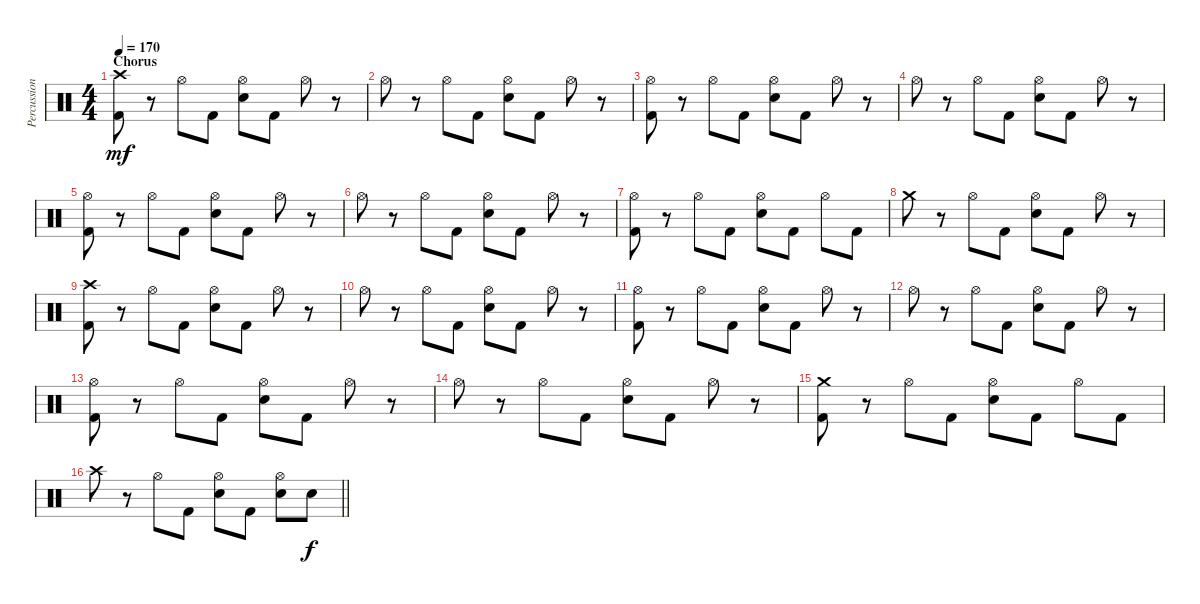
\track ("Percussion" "Percussion") {instrument percussion}
\staff {score}
\articulation defaults
\ts (4 4)
\section ("" "Chorus")
\tempo 170
\clef neutral
\ks c
("Crash high (hit)" "Kick (hit) 2").8{dy mf} r.8 "Hi-Hat (open)".8 "Kick (hit) 2".8 ("Hi-Hat (open)" "Electric Snare (hit)").8 "Kick (hit) 2".8 "Hi-Hat (open)".8 r.8 |
"Hi-Hat (open)".8 r.8 "Hi-Hat (open)".8 "Kick (hit) 2".8 ("Hi-Hat (open)" "Electric Snare (hit)").8 "Kick (hit) 2".8 "Hi-Hat (open)".8 r.8 |
("Hi-Hat (open)" "Kick (hit) 2").8 r.8 "Hi-Hat (open)".8 "Kick (hit) 2".8 ("Hi-Hat (open)" "Electric Snare (hit)").8 "Kick (hit) 2".8 "Hi-Hat (open)".8 r.8 |
"Hi-Hat (open)".8 r.8 "Hi-Hat (open)".8 "Kick (hit) 2".8 ("Hi-Hat (open)" "Electric Snare (hit)").8 "Kick (hit) 2".8 "Hi-Hat (open)".8 r.8 |
("Hi-Hat (open)" "Kick (hit) 2").8 r.8 "Hi-Hat (open)".8 "Kick (hit) 2".8 ("Hi-Hat (open)" "Electric Snare (hit)").8 "Kick (hit) 2".8 "Hi-Hat (open)".8 r.8 |
"Hi-Hat (open)".8 r.8 "Hi-Hat (open)".8 "Kick (hit) 2".8 ("Hi-Hat (open)" "Electric Snare (hit)").8 "Kick (hit) 2".8 "Hi-Hat (open)".8 r.8 |
("Hi-Hat (open)" "Kick (hit) 2").8 r.8 "Hi-Hat (open)".8 "Kick (hit) 2".8 ("Hi-Hat (open)" "Electric Snare (hit)").8 "Kick (hit) 2".8 "Hi-Hat (open)".8 "Kick (hit) 2".8 |
"Crash medium (hit)".8 r.8 "Hi-Hat (open)".8 "Kick (hit) 2".8 ("Hi-Hat (open)" "Electric Snare (hit)").8 "Kick (hit) 2".8 "Hi-Hat (open)".8 r.8 |
("Crash high (hit)" "Kick (hit) 2").8 r.8 "Hi-Hat (open)".8 "Kick (hit) 2".8 ("Hi-Hat (open)" "Electric Snare (hit)").8 "Kick (hit) 2".8 "Hi-Hat (open)".8 r.8 |
"Hi-Hat (open)".8 r.8 "Hi-Hat (open)".8 "Kick (hit) 2".8 ("Hi-Hat (open)" "Electric Snare (hit)").8 "Kick (hit) 2".8 "Hi-Hat (open)".8 r.8 |
("Hi-Hat (open)" "Kick (hit) 2").8 r.8 "Hi-Hat (open)".8 "Kick (hit) 2".8 ("Hi-Hat (open)" "Electric Snare (hit)").8 "Kick (hit) 2".8 "Hi-Hat (open)".8 r.8 |
"Hi-Hat (open)".8 r.8 "Hi-Hat (open)".8 "Kick (hit) 2".8 ("Hi-Hat (open)" "Electric Snare (hit)").8 "Kick (hit) 2".8 "Hi-Hat (open)".8 r.8 |
("Hi-Hat (open)" "Kick (hit) 2").8 r.8 "Hi-Hat (open)".8 "Kick (hit) 2".8 ("Hi-Hat (open)" "Electric Snare (hit)").8 "Kick (hit) 2".8 "Hi-Hat (open)".8 r.8 |
"Hi-Hat (open)".8 r.8 "Hi-Hat (open)".8 "Kick (hit) 2".8 ("Hi-Hat (open)" "Electric Snare (hit)").8 "Kick (hit) 2".8 "Hi-Hat (open)".8 r.8 |
("Crash medium (hit)" "Kick (hit) 2").8 r.8 "Hi-Hat (open)".8 "Kick (hit) 2".8 ("Hi-Hat (open)" "Electric Snare (hit)").8 "Kick (hit) 2".8 "Hi-Hat (open)".8 "Kick (hit) 2".8 |
\barLineRight lightlight "Crash high (hit)".8
r.8 "Hi-Hat (open)".8 "Kick (hit) 2".8 ("Hi-Hat (open)" "Electric Snare (hit)").8 "Kick (hit) 2".8 ("Hi-Hat (open)" "Electric Snare (hit)").8 "Electric Snare (hit)".8{dy f}
